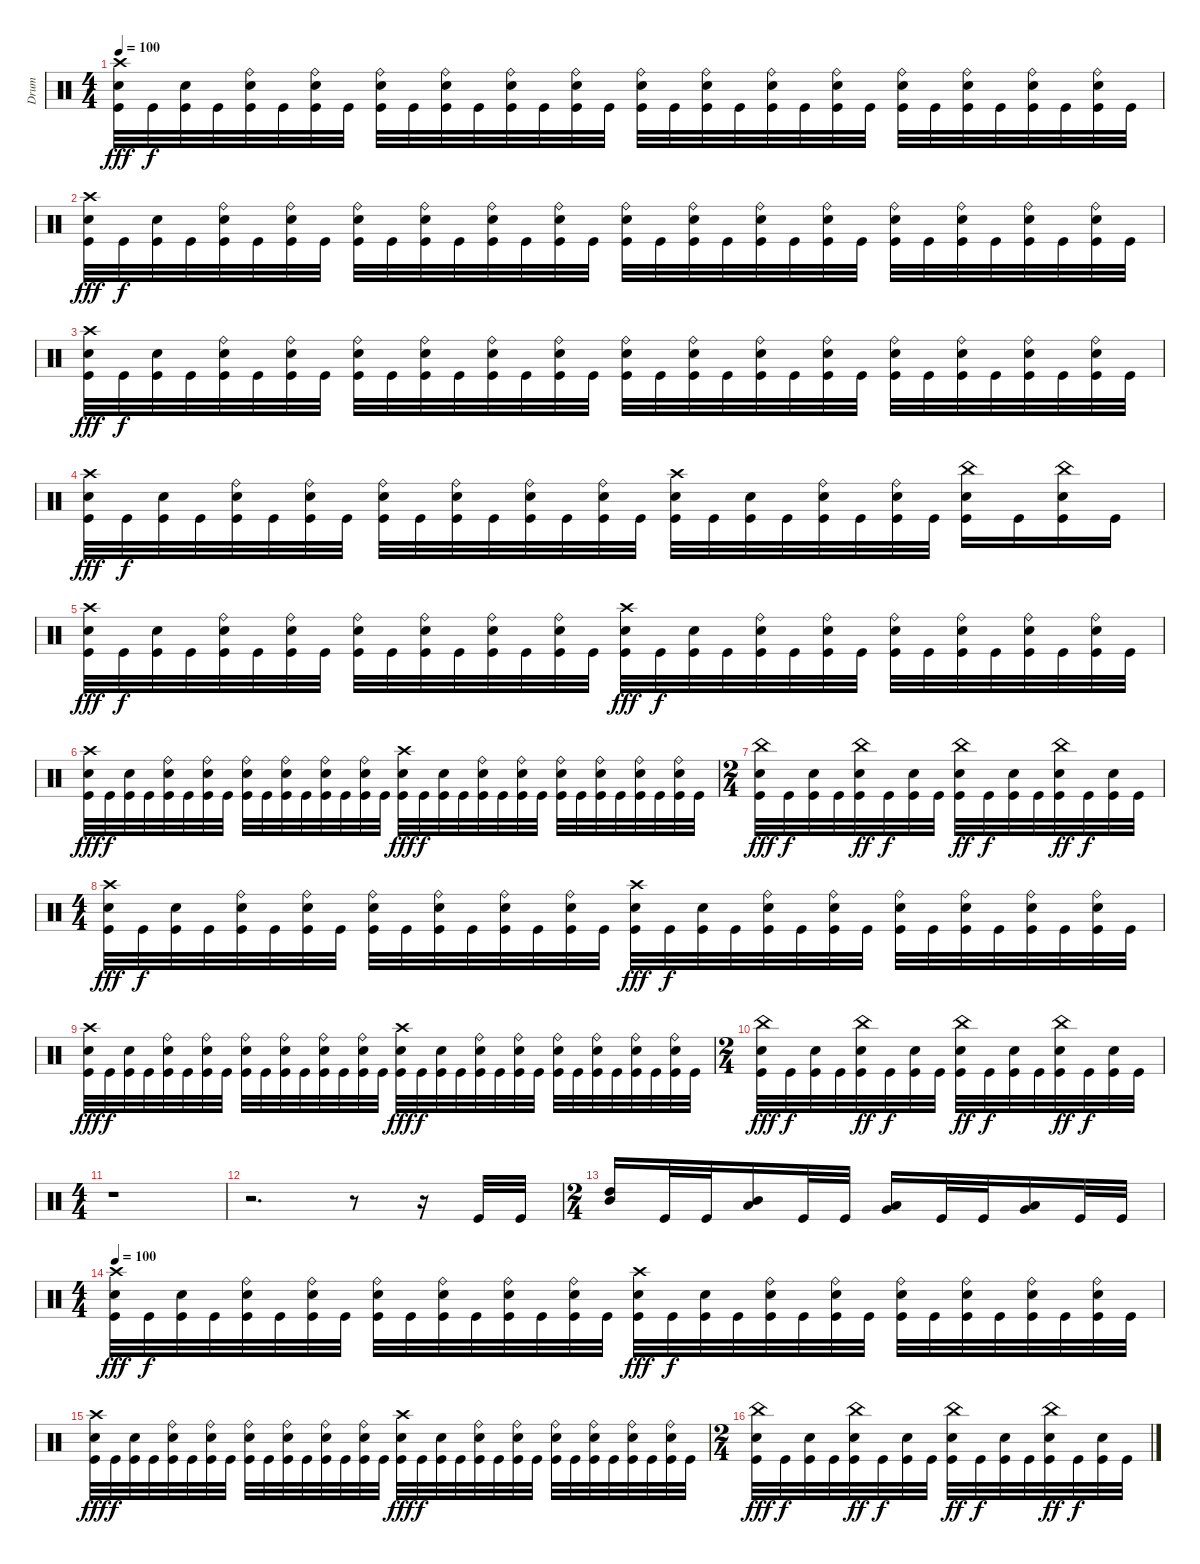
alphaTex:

\track ("Drum" "Drum") {instrument percussion}
\staff {score}
\articulation defaults
\ts (4 4)
\tempo 100
\clef neutral
\ks c
("Crash high (hit)" "Electric Snare (hit)" "Kick (hit)").32{dy fff} "Kick (hit)".32{dy f} ("Electric Snare (hit)" "Kick (hit)").32 "Kick (hit)".32 ("Ride (bell)" "Electric Snare (hit)" "Kick (hit)").32 "Kick (hit)".32 ("Ride (bell)" "Electric Snare (hit)" "Kick (hit)").32 "Kick (hit)".32 ("Ride (bell)" "Electric Snare (hit)" "Kick (hit)").32 "Kick (hit)".32 ("Ride (bell)" "Electric Snare (hit)" "Kick (hit)").32 "Kick (hit)".32 ("Ride (bell)" "Electric Snare (hit)" "Kick (hit)").32 "Kick (hit)".32 ("Ride (bell)" "Electric Snare (hit)" "Kick (hit)").32 "Kick (hit)".32 ("Ride (bell)" "Electric Snare (hit)" "Kick (hit)").32 "Kick (hit)".32 ("Ride (bell)" "Electric Snare (hit)" "Kick (hit)").32 "Kick (hit)".32 ("Ride (bell)" "Electric Snare (hit)" "Kick (hit)").32 "Kick (hit)".32 ("Ride (bell)" "Electric Snare (hit)" "Kick (hit)").32 "Kick (hit)".32 ("Ride (bell)" "Electric Snare (hit)" "Kick (hit)").32 "Kick (hit)".32 ("Ride (bell)" "Electric Snare (hit)" "Kick (hit)").32 "Kick (hit)".32 ("Ride (bell)" "Electric Snare (hit)" "Kick (hit)").32 "Kick (hit)".32 ("Ride (bell)" "Electric Snare (hit)" "Kick (hit)").32 "Kick (hit)".32 |
("Crash high (hit)" "Electric Snare (hit)" "Kick (hit)").32{dy fff} "Kick (hit)".32{dy f} ("Electric Snare (hit)" "Kick (hit)").32 "Kick (hit)".32 ("Ride (bell)" "Electric Snare (hit)" "Kick (hit)").32 "Kick (hit)".32 ("Ride (bell)" "Electric Snare (hit)" "Kick (hit)").32 "Kick (hit)".32 ("Ride (bell)" "Electric Snare (hit)" "Kick (hit)").32 "Kick (hit)".32 ("Ride (bell)" "Electric Snare (hit)" "Kick (hit)").32 "Kick (hit)".32 ("Ride (bell)" "Electric Snare (hit)" "Kick (hit)").32 "Kick (hit)".32 ("Ride (bell)" "Electric Snare (hit)" "Kick (hit)").32 "Kick (hit)".32 ("Ride (bell)" "Electric Snare (hit)" "Kick (hit)").32 "Kick (hit)".32 ("Ride (bell)" "Electric Snare (hit)" "Kick (hit)").32 "Kick (hit)".32 ("Ride (bell)" "Electric Snare (hit)" "Kick (hit)").32 "Kick (hit)".32 ("Ride (bell)" "Electric Snare (hit)" "Kick (hit)").32 "Kick (hit)".32 ("Ride (bell)" "Electric Snare (hit)" "Kick (hit)").32 "Kick (hit)".32 ("Ride (bell)" "Electric Snare (hit)" "Kick (hit)").32 "Kick (hit)".32 ("Ride (bell)" "Electric Snare (hit)" "Kick (hit)").32 "Kick (hit)".32 ("Ride (bell)" "Electric Snare (hit)" "Kick (hit)").32 "Kick (hit)".32 |
("Crash high (hit)" "Electric Snare (hit)" "Kick (hit)").32{dy fff} "Kick (hit)".32{dy f} ("Electric Snare (hit)" "Kick (hit)").32 "Kick (hit)".32 ("Ride (bell)" "Electric Snare (hit)" "Kick (hit)").32 "Kick (hit)".32 ("Ride (bell)" "Electric Snare (hit)" "Kick (hit)").32 "Kick (hit)".32 ("Ride (bell)" "Electric Snare (hit)" "Kick (hit)").32 "Kick (hit)".32 ("Ride (bell)" "Electric Snare (hit)" "Kick (hit)").32 "Kick (hit)".32 ("Ride (bell)" "Electric Snare (hit)" "Kick (hit)").32 "Kick (hit)".32 ("Ride (bell)" "Electric Snare (hit)" "Kick (hit)").32 "Kick (hit)".32 ("Ride (bell)" "Electric Snare (hit)" "Kick (hit)").32 "Kick (hit)".32 ("Ride (bell)" "Electric Snare (hit)" "Kick (hit)").32 "Kick (hit)".32 ("Ride (bell)" "Electric Snare (hit)" "Kick (hit)").32 "Kick (hit)".32 ("Ride (bell)" "Electric Snare (hit)" "Kick (hit)").32 "Kick (hit)".32 ("Ride (bell)" "Electric Snare (hit)" "Kick (hit)").32 "Kick (hit)".32 ("Ride (bell)" "Electric Snare (hit)" "Kick (hit)").32 "Kick (hit)".32 ("Ride (bell)" "Electric Snare (hit)" "Kick (hit)").32 "Kick (hit)".32 ("Ride (bell)" "Electric Snare (hit)" "Kick (hit)").32 "Kick (hit)".32 |
("Crash high (hit)" "Electric Snare (hit)" "Kick (hit)").32{dy fff} "Kick (hit)".32{dy f} ("Electric Snare (hit)" "Kick (hit)").32 "Kick (hit)".32 ("Ride (bell)" "Electric Snare (hit)" "Kick (hit)").32 "Kick (hit)".32 ("Ride (bell)" "Electric Snare (hit)" "Kick (hit)").32 "Kick (hit)".32 ("Ride (bell)" "Electric Snare (hit)" "Kick (hit)").32 "Kick (hit)".32 ("Ride (bell)" "Electric Snare (hit)" "Kick (hit)").32 "Kick (hit)".32 ("Ride (bell)" "Electric Snare (hit)" "Kick (hit)").32 "Kick (hit)".32 ("Ride (bell)" "Electric Snare (hit)" "Kick (hit)").32 "Kick (hit)".32 ("Crash high (hit)" "Electric Snare (hit)" "Kick (hit)").32 "Kick (hit)".32 ("Electric Snare (hit)" "Kick (hit)").32 "Kick (hit)".32 ("Ride (bell)" "Electric Snare (hit)" "Kick (hit)").32 "Kick (hit)".32 ("Ride (bell)" "Electric Snare (hit)" "Kick (hit)").32 "Kick (hit)".32 ("China (hit)" "Electric Snare (hit)" "Kick (hit)").16 "Kick (hit)".16 ("China (hit)" "Electric Snare (hit)" "Kick (hit)").16 "Kick (hit)".16 |
("Crash high (hit)" "Electric Snare (hit)" "Kick (hit)").32{dy fff} "Kick (hit)".32{dy f} ("Electric Snare (hit)" "Kick (hit)").32 "Kick (hit)".32 ("Ride (bell)" "Electric Snare (hit)" "Kick (hit)").32 "Kick (hit)".32 ("Ride (bell)" "Electric Snare (hit)" "Kick (hit)").32 "Kick (hit)".32 ("Ride (bell)" "Electric Snare (hit)" "Kick (hit)").32 "Kick (hit)".32 ("Ride (bell)" "Electric Snare (hit)" "Kick (hit)").32 "Kick (hit)".32 ("Ride (bell)" "Electric Snare (hit)" "Kick (hit)").32 "Kick (hit)".32 ("Ride (bell)" "Electric Snare (hit)" "Kick (hit)").32 "Kick (hit)".32 ("Crash high (hit)" "Electric Snare (hit)" "Kick (hit)").32{dy fff} "Kick (hit)".32{dy f} ("Electric Snare (hit)" "Kick (hit)").32 "Kick (hit)".32 ("Ride (bell)" "Electric Snare (hit)" "Kick (hit)").32 "Kick (hit)".32 ("Ride (bell)" "Electric Snare (hit)" "Kick (hit)").32 "Kick (hit)".32 ("Ride (bell)" "Electric Snare (hit)" "Kick (hit)").32 "Kick (hit)".32 ("Ride (bell)" "Electric Snare (hit)" "Kick (hit)").32 "Kick (hit)".32 ("Ride (bell)" "Electric Snare (hit)" "Kick (hit)").32 "Kick (hit)".32 ("Ride (bell)" "Electric Snare (hit)" "Kick (hit)").32 "Kick (hit)".32 |
("Crash high (hit)" "Electric Snare (hit)" "Kick (hit)").32{dy fff} "Kick (hit)".32{dy f} ("Electric Snare (hit)" "Kick (hit)").32 "Kick (hit)".32 ("Ride (bell)" "Electric Snare (hit)" "Kick (hit)").32 "Kick (hit)".32 ("Ride (bell)" "Electric Snare (hit)" "Kick (hit)").32 "Kick (hit)".32 ("Ride (bell)" "Electric Snare (hit)" "Kick (hit)").32 "Kick (hit)".32 ("Ride (bell)" "Electric Snare (hit)" "Kick (hit)").32 "Kick (hit)".32 ("Ride (bell)" "Electric Snare (hit)" "Kick (hit)").32 "Kick (hit)".32 ("Ride (bell)" "Electric Snare (hit)" "Kick (hit)").32 "Kick (hit)".32 ("Crash high (hit)" "Electric Snare (hit)" "Kick (hit)").32{dy fff} "Kick (hit)".32{dy f} ("Electric Snare (hit)" "Kick (hit)").32 "Kick (hit)".32 ("Ride (bell)" "Electric Snare (hit)" "Kick (hit)").32 "Kick (hit)".32 ("Ride (bell)" "Electric Snare (hit)" "Kick (hit)").32 "Kick (hit)".32 ("Ride (bell)" "Electric Snare (hit)" "Kick (hit)").32 "Kick (hit)".32 ("Ride (bell)" "Electric Snare (hit)" "Kick (hit)").32 "Kick (hit)".32 ("Ride (bell)" "Electric Snare (hit)" "Kick (hit)").32 "Kick (hit)".32 ("Ride (bell)" "Electric Snare (hit)" "Kick (hit)").32 "Kick (hit)".32 |
\ts (2 4)
("China (hit)" "Electric Snare (hit)" "Kick (hit)").32{dy fff} "Kick (hit)".32{dy f} ("Electric Snare (hit)" "Kick (hit)").32 "Kick (hit)".32 ("China (hit)" "Electric Snare (hit)" "Kick (hit)").32{dy ff} "Kick (hit)".32{dy f} ("Electric Snare (hit)" "Kick (hit)").32 "Kick (hit)".32 ("China (hit)" "Electric Snare (hit)" "Kick (hit)").32{dy ff} "Kick (hit)".32{dy f} ("Electric Snare (hit)" "Kick (hit)").32 "Kick (hit)".32 ("China (hit)" "Electric Snare (hit)" "Kick (hit)").32{dy ff} "Kick (hit)".32{dy f} ("Electric Snare (hit)" "Kick (hit)").32 "Kick (hit)".32 |
\ts (4 4)
("Crash high (hit)" "Electric Snare (hit)" "Kick (hit)").32{dy fff} "Kick (hit)".32{dy f} ("Electric Snare (hit)" "Kick (hit)").32 "Kick (hit)".32 ("Ride (bell)" "Electric Snare (hit)" "Kick (hit)").32 "Kick (hit)".32 ("Ride (bell)" "Electric Snare (hit)" "Kick (hit)").32 "Kick (hit)".32 ("Ride (bell)" "Electric Snare (hit)" "Kick (hit)").32 "Kick (hit)".32 ("Ride (bell)" "Electric Snare (hit)" "Kick (hit)").32 "Kick (hit)".32 ("Ride (bell)" "Electric Snare (hit)" "Kick (hit)").32 "Kick (hit)".32 ("Ride (bell)" "Electric Snare (hit)" "Kick (hit)").32 "Kick (hit)".32 ("Crash high (hit)" "Electric Snare (hit)" "Kick (hit)").32{dy fff} "Kick (hit)".32{dy f} ("Electric Snare (hit)" "Kick (hit)").32 "Kick (hit)".32 ("Ride (bell)" "Electric Snare (hit)" "Kick (hit)").32 "Kick (hit)".32 ("Ride (bell)" "Electric Snare (hit)" "Kick (hit)").32 "Kick (hit)".32 ("Ride (bell)" "Electric Snare (hit)" "Kick (hit)").32 "Kick (hit)".32 ("Ride (bell)" "Electric Snare (hit)" "Kick (hit)").32 "Kick (hit)".32 ("Ride (bell)" "Electric Snare (hit)" "Kick (hit)").32 "Kick (hit)".32 ("Ride (bell)" "Electric Snare (hit)" "Kick (hit)").32 "Kick (hit)".32 |
("Crash high (hit)" "Electric Snare (hit)" "Kick (hit)").32{dy fff} "Kick (hit)".32{dy f} ("Electric Snare (hit)" "Kick (hit)").32 "Kick (hit)".32 ("Ride (bell)" "Electric Snare (hit)" "Kick (hit)").32 "Kick (hit)".32 ("Ride (bell)" "Electric Snare (hit)" "Kick (hit)").32 "Kick (hit)".32 ("Ride (bell)" "Electric Snare (hit)" "Kick (hit)").32 "Kick (hit)".32 ("Ride (bell)" "Electric Snare (hit)" "Kick (hit)").32 "Kick (hit)".32 ("Ride (bell)" "Electric Snare (hit)" "Kick (hit)").32 "Kick (hit)".32 ("Ride (bell)" "Electric Snare (hit)" "Kick (hit)").32 "Kick (hit)".32 ("Crash high (hit)" "Electric Snare (hit)" "Kick (hit)").32{dy fff} "Kick (hit)".32{dy f} ("Electric Snare (hit)" "Kick (hit)").32 "Kick (hit)".32 ("Ride (bell)" "Electric Snare (hit)" "Kick (hit)").32 "Kick (hit)".32 ("Ride (bell)" "Electric Snare (hit)" "Kick (hit)").32 "Kick (hit)".32 ("Ride (bell)" "Electric Snare (hit)" "Kick (hit)").32 "Kick (hit)".32 ("Ride (bell)" "Electric Snare (hit)" "Kick (hit)").32 "Kick (hit)".32 ("Ride (bell)" "Electric Snare (hit)" "Kick (hit)").32 "Kick (hit)".32 ("Ride (bell)" "Electric Snare (hit)" "Kick (hit)").32 "Kick (hit)".32 |
\ts (2 4)
("China (hit)" "Electric Snare (hit)" "Kick (hit)").32{dy fff} "Kick (hit)".32{dy f} ("Electric Snare (hit)" "Kick (hit)").32 "Kick (hit)".32 ("China (hit)" "Electric Snare (hit)" "Kick (hit)").32{dy ff} "Kick (hit)".32{dy f} ("Electric Snare (hit)" "Kick (hit)").32 "Kick (hit)".32 ("China (hit)" "Electric Snare (hit)" "Kick (hit)").32{dy ff} "Kick (hit)".32{dy f} ("Electric Snare (hit)" "Kick (hit)").32 "Kick (hit)".32 ("China (hit)" "Electric Snare (hit)" "Kick (hit)").32{dy ff} "Kick (hit)".32{dy f} ("Electric Snare (hit)" "Kick (hit)").32 "Kick (hit)".32 |
\ts (4 4)
r.1 |
r.2{d} r.8 r.16 "Kick (hit)".32 "Kick (hit)".32 |
\ts (2 4)
("Mid Tom (hit)" "High Tom (hit)").16 "Kick (hit)".32 "Kick (hit)".32 ("Low Tom (hit)" "Mid Tom (hit)").16 "Kick (hit)".32 "Kick (hit)".32 ("Very Low Tom (hit)" "Low Tom (hit)").16 "Kick (hit)".32 "Kick (hit)".32 ("Low Floor Tom (hit)" "Very Low Tom (hit)").16 "Kick (hit)".32 "Kick (hit)".32 |
\ts (4 4)
\tempo 100
("Crash high (hit)" "Electric Snare (hit)" "Kick (hit)").32{dy fff} "Kick (hit)".32{dy f} ("Electric Snare (hit)" "Kick (hit)").32 "Kick (hit)".32 ("Ride (bell)" "Electric Snare (hit)" "Kick (hit)").32 "Kick (hit)".32 ("Ride (bell)" "Electric Snare (hit)" "Kick (hit)").32 "Kick (hit)".32 ("Ride (bell)" "Electric Snare (hit)" "Kick (hit)").32 "Kick (hit)".32 ("Ride (bell)" "Electric Snare (hit)" "Kick (hit)").32 "Kick (hit)".32 ("Ride (bell)" "Electric Snare (hit)" "Kick (hit)").32 "Kick (hit)".32 ("Ride (bell)" "Electric Snare (hit)" "Kick (hit)").32 "Kick (hit)".32 ("Crash high (hit)" "Electric Snare (hit)" "Kick (hit)").32{dy fff} "Kick (hit)".32{dy f} ("Electric Snare (hit)" "Kick (hit)").32 "Kick (hit)".32 ("Ride (bell)" "Electric Snare (hit)" "Kick (hit)").32 "Kick (hit)".32 ("Ride (bell)" "Electric Snare (hit)" "Kick (hit)").32 "Kick (hit)".32 ("Ride (bell)" "Electric Snare (hit)" "Kick (hit)").32 "Kick (hit)".32 ("Ride (bell)" "Electric Snare (hit)" "Kick (hit)").32 "Kick (hit)".32 ("Ride (bell)" "Electric Snare (hit)" "Kick (hit)").32 "Kick (hit)".32 ("Ride (bell)" "Electric Snare (hit)" "Kick (hit)").32 "Kick (hit)".32 |
("Crash high (hit)" "Electric Snare (hit)" "Kick (hit)").32{dy fff} "Kick (hit)".32{dy f} ("Electric Snare (hit)" "Kick (hit)").32 "Kick (hit)".32 ("Ride (bell)" "Electric Snare (hit)" "Kick (hit)").32 "Kick (hit)".32 ("Ride (bell)" "Electric Snare (hit)" "Kick (hit)").32 "Kick (hit)".32 ("Ride (bell)" "Electric Snare (hit)" "Kick (hit)").32 "Kick (hit)".32 ("Ride (bell)" "Electric Snare (hit)" "Kick (hit)").32 "Kick (hit)".32 ("Ride (bell)" "Electric Snare (hit)" "Kick (hit)").32 "Kick (hit)".32 ("Ride (bell)" "Electric Snare (hit)" "Kick (hit)").32 "Kick (hit)".32 ("Crash high (hit)" "Electric Snare (hit)" "Kick (hit)").32{dy fff} "Kick (hit)".32{dy f} ("Electric Snare (hit)" "Kick (hit)").32 "Kick (hit)".32 ("Ride (bell)" "Electric Snare (hit)" "Kick (hit)").32 "Kick (hit)".32 ("Ride (bell)" "Electric Snare (hit)" "Kick (hit)").32 "Kick (hit)".32 ("Ride (bell)" "Electric Snare (hit)" "Kick (hit)").32 "Kick (hit)".32 ("Ride (bell)" "Electric Snare (hit)" "Kick (hit)").32 "Kick (hit)".32 ("Ride (bell)" "Electric Snare (hit)" "Kick (hit)").32 "Kick (hit)".32 ("Ride (bell)" "Electric Snare (hit)" "Kick (hit)").32 "Kick (hit)".32 |
\ts (2 4)
("China (hit)" "Electric Snare (hit)" "Kick (hit)").32{dy fff} "Kick (hit)".32{dy f} ("Electric Snare (hit)" "Kick (hit)").32 "Kick (hit)".32 ("China (hit)" "Electric Snare (hit)" "Kick (hit)").32{dy ff} "Kick (hit)".32{dy f} ("Electric Snare (hit)" "Kick (hit)").32 "Kick (hit)".32 ("China (hit)" "Electric Snare (hit)" "Kick (hit)").32{dy ff} "Kick (hit)".32{dy f} ("Electric Snare (hit)" "Kick (hit)").32 "Kick (hit)".32 ("China (hit)" "Electric Snare (hit)" "Kick (hit)").32{dy ff} "Kick (hit)".32{dy f} ("Electric Snare (hit)" "Kick (hit)").32 "Kick (hit)".32
